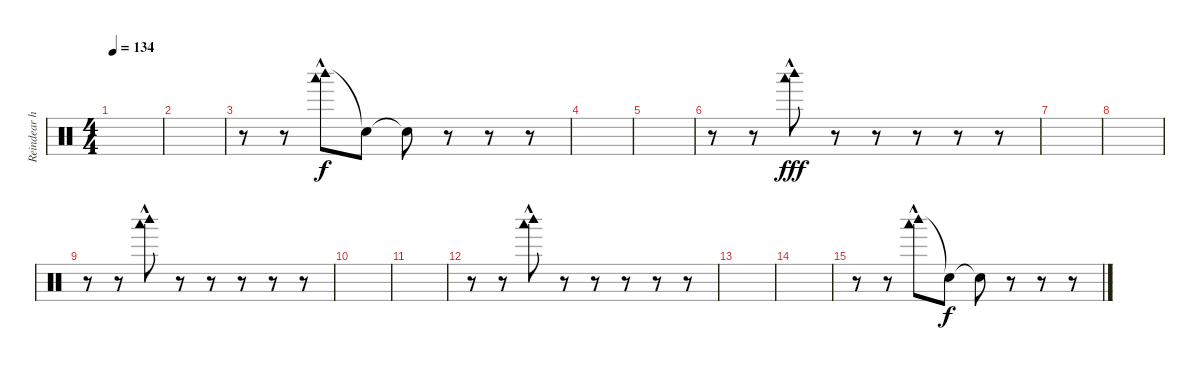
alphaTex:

\track ("Reindear horn" "Reindear h") {instrument percussion}
\staff {score}
\articulation defaults
\ts (4 4)
\tempo 134
\clef neutral
\ks c
|
|
r.8 r.8 ("Woodblock high (hit)" "Woodblock low (hit)"{hac}).8 "Snare (hit)"{t}.8{dy f} "Snare (hit)"{t}.8 r.8 r.8 r.8 |
|
|
r.8 r.8 ("Woodblock high (hit)" "Woodblock low (hit)"{hac}).8{dy fff} r.8 r.8 r.8 r.8 r.8 |
|
|
r.8 r.8 ("Woodblock high (hit)" "Woodblock low (hit)"{hac}).8 r.8 r.8 r.8 r.8 r.8 |
|
|
r.8 r.8 ("Woodblock high (hit)" "Woodblock low (hit)"{hac}).8 r.8 r.8 r.8 r.8 r.8 |
|
|
r.8 r.8 ("Woodblock high (hit)" "Woodblock low (hit)"{hac}).8 "Snare (hit)"{t}.8{dy f} "Snare (hit)"{t}.8 r.8 r.8 r.8
